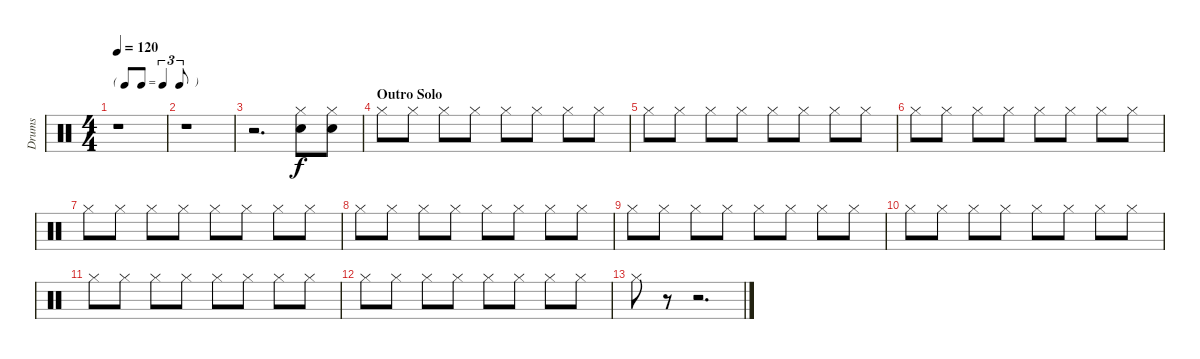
\track ("Drums" "Drums") {instrument percussion}
\staff {score}
\articulation defaults
\ts (4 4)
\tf triplet8th
\tempo 120
\clef neutral
\ks c
r.1{dy f} |
r.1 |
r.2{d} ("Hi-Hat (closed)" "Hand Clap (hit)").8 ("Hi-Hat (closed)" "Hand Clap (hit)").8 |
\section ("" "Outro Solo")
"Hi-Hat (closed)".8 "Hi-Hat (closed)".8 "Hi-Hat (closed)".8 "Hi-Hat (closed)".8 "Hi-Hat (closed)".8 "Hi-Hat (closed)".8 "Hi-Hat (closed)".8 "Hi-Hat (closed)".8 |
"Hi-Hat (closed)".8 "Hi-Hat (closed)".8 "Hi-Hat (closed)".8 "Hi-Hat (closed)".8 "Hi-Hat (closed)".8 "Hi-Hat (closed)".8 "Hi-Hat (closed)".8 "Hi-Hat (closed)".8 |
"Hi-Hat (closed)".8 "Hi-Hat (closed)".8 "Hi-Hat (closed)".8 "Hi-Hat (closed)".8 "Hi-Hat (closed)".8 "Hi-Hat (closed)".8 "Hi-Hat (closed)".8 "Hi-Hat (closed)".8 |
"Hi-Hat (closed)".8 "Hi-Hat (closed)".8 "Hi-Hat (closed)".8 "Hi-Hat (closed)".8 "Hi-Hat (closed)".8 "Hi-Hat (closed)".8 "Hi-Hat (closed)".8 "Hi-Hat (closed)".8 |
"Hi-Hat (closed)".8 "Hi-Hat (closed)".8 "Hi-Hat (closed)".8 "Hi-Hat (closed)".8 "Hi-Hat (closed)".8 "Hi-Hat (closed)".8 "Hi-Hat (closed)".8 "Hi-Hat (closed)".8 |
"Hi-Hat (closed)".8 "Hi-Hat (closed)".8 "Hi-Hat (closed)".8 "Hi-Hat (closed)".8 "Hi-Hat (closed)".8 "Hi-Hat (closed)".8 "Hi-Hat (closed)".8 "Hi-Hat (closed)".8 |
"Hi-Hat (closed)".8 "Hi-Hat (closed)".8 "Hi-Hat (closed)".8 "Hi-Hat (closed)".8 "Hi-Hat (closed)".8 "Hi-Hat (closed)".8 "Hi-Hat (closed)".8 "Hi-Hat (closed)".8 |
"Hi-Hat (closed)".8 "Hi-Hat (closed)".8 "Hi-Hat (closed)".8 "Hi-Hat (closed)".8 "Hi-Hat (closed)".8 "Hi-Hat (closed)".8 "Hi-Hat (closed)".8 "Hi-Hat (closed)".8 |
"Hi-Hat (closed)".8 "Hi-Hat (closed)".8 "Hi-Hat (closed)".8 "Hi-Hat (closed)".8 "Hi-Hat (closed)".8 "Hi-Hat (closed)".8 "Hi-Hat (closed)".8 "Hi-Hat (closed)".8 |
"Hi-Hat (closed)".8 r.8 r.2{d}
